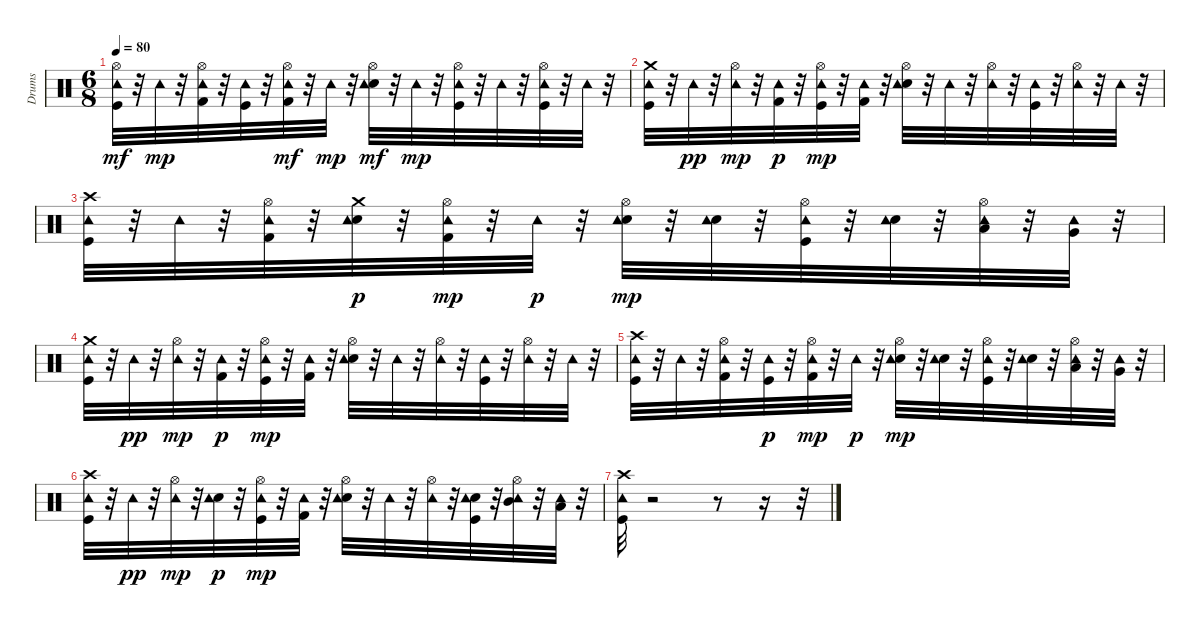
\track ("Drums" "Drums") {instrument percussion}
\staff {score}
\articulation defaults
\ts (6 8)
\tempo 80
\clef neutral
\ks c
("Kick (hit)" "Hi-Hat (open)" "Tambourine (hit)").32{dy mf} r.32 "Tambourine (hit)".32{dy mp} r.32 ("Kick (hit) 2" "Hi-Hat (open)" "Tambourine (hit)").32 r.32 ("Kick (hit)" "Tambourine (hit)").32 r.32 ("Kick (hit) 2" "Hi-Hat (open)" "Tambourine (hit)").32{dy mf} r.32 "Tambourine (hit)".32{dy mp} r.32 ("Electric Snare (hit)" "Hi-Hat (open)" "Tambourine (hit)").32{dy mf} r.32 "Tambourine (hit)".32{dy mp} r.32 ("Kick (hit)" "Hi-Hat (open)" "Tambourine (hit)").32 r.32 "Tambourine (hit)".32 r.32 ("Kick (hit)" "Hi-Hat (open)" "Tambourine (hit)").32 r.32 "Tambourine (hit)".32 r.32 |
("Kick (hit)" "Tambourine (hit)" "Crash medium (hit)").32 r.32 "Tambourine (hit)".32{dy pp} r.32 ("Hi-Hat (open)" "Tambourine (hit)").32{dy mp} r.32 ("Kick (hit) 2" "Tambourine (hit)").32{dy p} r.32 ("Kick (hit)" "Hi-Hat (open)" "Tambourine (hit)").32{dy mp} r.32 ("Kick (hit) 2" "Tambourine (hit)").32 r.32 ("Electric Snare (hit)" "Hi-Hat (open)" "Tambourine (hit)").32 r.32 "Tambourine (hit)".32 r.32 ("Hi-Hat (open)" "Tambourine (hit)").32 r.32 ("Kick (hit)" "Tambourine (hit)").32 r.32 ("Hi-Hat (open)" "Tambourine (hit)").32 r.32 "Tambourine (hit)".32 r.32 |
("Kick (hit)" "Crash high (hit)" "Tambourine (hit)").32 r.32 "Tambourine (hit)".32 r.32 ("Kick (hit) 2" "Hi-Hat (open)" "Tambourine (hit)").32 r.32 ("Electric Snare (hit)" "Tambourine (hit)" "Crash medium (hit)").32{dy p} r.32 ("Kick (hit) 2" "Hi-Hat (open)" "Tambourine (hit)").32{dy mp} r.32 "Tambourine (hit)".32{dy p} r.32 ("Electric Snare (hit)" "Hi-Hat (open)" "Tambourine (hit)").32{dy mp} r.32 ("Electric Snare (hit)" "Tambourine (hit)").32 r.32 ("Kick (hit)" "Hi-Hat (open)" "Tambourine (hit)").32 r.32 ("Electric Snare (hit)" "Tambourine (hit)").32 r.32 ("Low Tom (hit)" "Hi-Hat (open)" "Tambourine (hit)").32 r.32 ("Very Low Tom (hit)" "Tambourine (hit)").32 r.32 |
("Kick (hit)" "Tambourine (hit)" "Crash medium (hit)").32 r.32 "Tambourine (hit)".32{dy pp} r.32 ("Hi-Hat (open)" "Tambourine (hit)").32{dy mp} r.32 ("Kick (hit) 2" "Tambourine (hit)").32{dy p} r.32 ("Kick (hit)" "Hi-Hat (open)" "Tambourine (hit)").32{dy mp} r.32 ("Kick (hit) 2" "Tambourine (hit)").32 r.32 ("Electric Snare (hit)" "Hi-Hat (open)" "Tambourine (hit)").32 r.32 "Tambourine (hit)".32 r.32 ("Hi-Hat (open)" "Tambourine (hit)").32 r.32 ("Kick (hit)" "Tambourine (hit)").32 r.32 ("Hi-Hat (open)" "Tambourine (hit)").32 r.32 "Tambourine (hit)".32 r.32 |
("Kick (hit)" "Crash high (hit)" "Tambourine (hit)").32 r.32 "Tambourine (hit)".32 r.32 ("Kick (hit) 2" "Hi-Hat (open)" "Tambourine (hit)").32 r.32 ("Kick (hit)" "Tambourine (hit)").32{dy p} r.32 ("Kick (hit) 2" "Hi-Hat (open)" "Tambourine (hit)").32{dy mp} r.32 "Tambourine (hit)".32{dy p} r.32 ("Electric Snare (hit)" "Hi-Hat (open)" "Tambourine (hit)").32{dy mp} r.32 ("Electric Snare (hit)" "Tambourine (hit)").32 r.32 ("Kick (hit)" "Hi-Hat (open)" "Tambourine (hit)").32 r.32 ("Electric Snare (hit)" "Tambourine (hit)").32 r.32 ("Low Tom (hit)" "Hi-Hat (open)" "Tambourine (hit)").32 r.32 ("Very Low Tom (hit)" "Tambourine (hit)").32 r.32 |
("Kick (hit)" "Crash high (hit)" "Tambourine (hit)").32 r.32 "Tambourine (hit)".32{dy pp} r.32 ("Hi-Hat (open)" "Tambourine (hit)").32{dy mp} r.32 ("Electric Snare (hit)" "Tambourine (hit)").32{dy p} r.32 ("Kick (hit)" "Hi-Hat (open)" "Tambourine (hit)").32{dy mp} r.32 ("Kick (hit) 2" "Tambourine (hit)").32 r.32 ("Electric Snare (hit)" "Hi-Hat (open)" "Tambourine (hit)").32 r.32 "Tambourine (hit)".32 r.32 ("Hi-Hat (open)" "Tambourine (hit)").32 r.32 ("Electric Snare (hit)" "Kick (hit)" "Tambourine (hit)").32 r.32 ("Mid Tom (hit)" "Hi-Hat (open)" "Tambourine (hit)").32 r.32 ("Tambourine (hit)" "Low Tom (hit)").32 r.32 |
("Kick (hit)" "Crash high (hit)" "Tambourine (hit)").32 r.2 r.8 r.16 r.32
